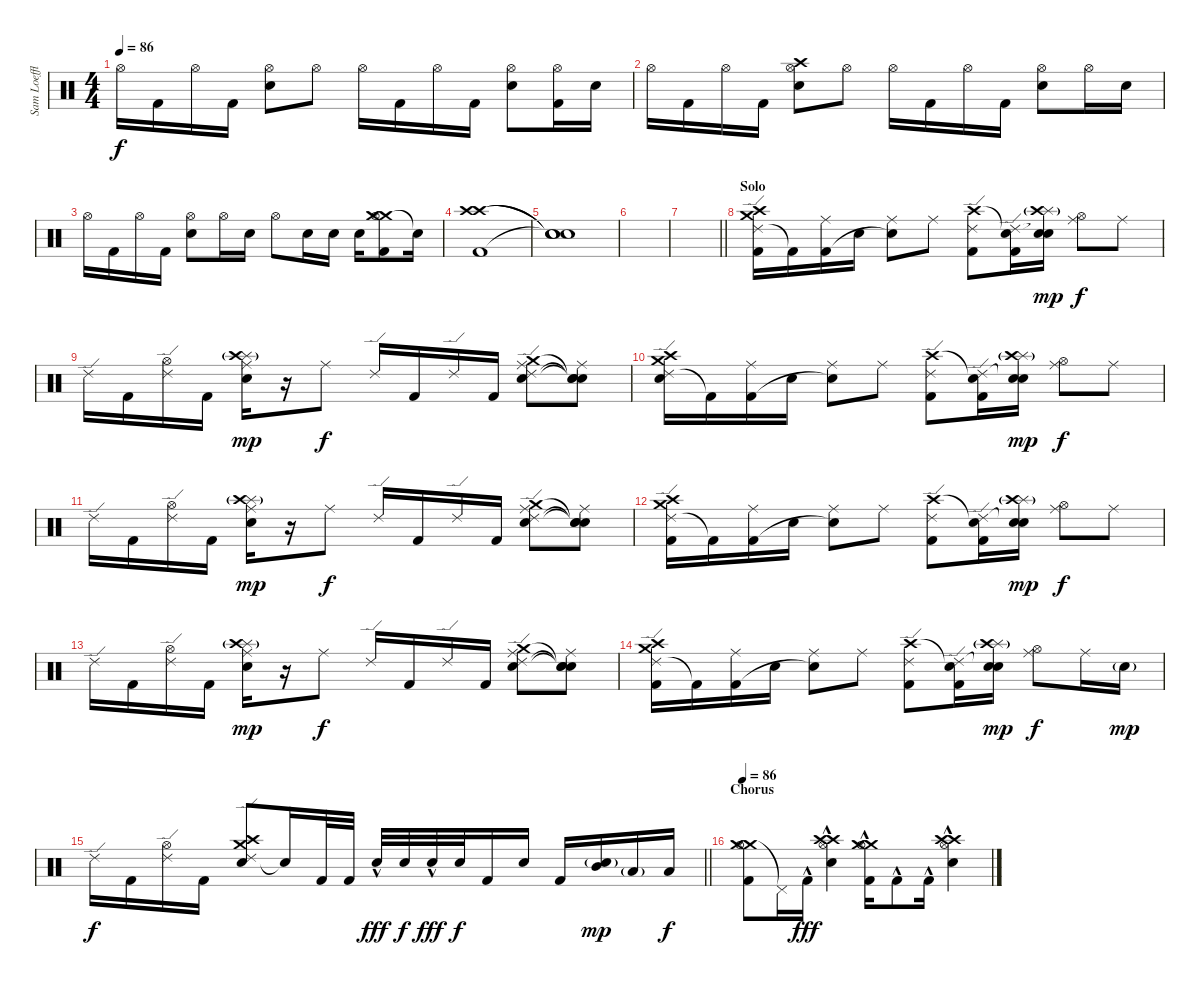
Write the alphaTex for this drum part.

\track ("Sam Loeffler- Drums" "Sam Loeffl") {instrument percussion}
\staff {score}
\articulation defaults
\ts (4 4)
\tempo 86
\clef neutral
\ks c "Hi-Hat (open)".16{dy f} "Kick (hit) 2".16 "Hi-Hat (open)".16 "Kick (hit) 2".16
("Hi-Hat (open)" "Electric Snare (hit)").8 "Hi-Hat (open)".8 "Hi-Hat (open)".16 "Kick (hit) 2".16 "Hi-Hat (open)".16 "Kick (hit) 2".16 ("Hi-Hat (open)" "Electric Snare (hit)").8 ("Hi-Hat (open)" "Kick (hit) 2").16 "Electric Snare (hit)".16 |
"Hi-Hat (open)".16 "Kick (hit) 2".16 "Hi-Hat (open)".16 "Kick (hit) 2".16 ("Crash high (hit)" "Hi-Hat (open)" "Electric Snare (hit)").8 "Hi-Hat (open)".8 "Hi-Hat (open)".16 "Kick (hit) 2".16 "Hi-Hat (open)".16 "Kick (hit) 2".16 ("Hi-Hat (open)" "Electric Snare (hit)").8 "Hi-Hat (open)".16 "Electric Snare (hit)".16 |
"Hi-Hat (open)".16 "Kick (hit) 2".16 "Hi-Hat (open)".16 "Kick (hit) 2".16 ("Hi-Hat (open)" "Electric Snare (hit)").8 "Hi-Hat (open)".16 "Electric Snare (hit)".16 "Hi-Hat (open)".8 "Electric Snare (hit)".16 "Electric Snare (hit)".16 "Electric Snare (hit)".16 ("Crash medium (hit)" "Crash medium (hit)" "Hi-Hat (open)" "Kick (hit) 2").8 "Snare (hit)"{t}.16 |
("Crash high (hit)" "Crash high (hit)" "Kick (hit) 2").1 |
("Snare (hit)"{t} "Snare (hit)"{t} "Snare (hit)"{t}).1 |
|
\barLineRight lightlight
|
\section ("" "Solo")
("Ride (edge) 2" "Crash medium (hit)" "Crash high (hit)" "Kick (hit) 2").16 "Kick (hit) 2"{t}.16 ("Ride (middle)" "Kick (hit) 2").16 "Electric Snare (hit)".16 ("Ride (middle)" "Snare (hit)"{t}).8 "Ride (middle)".8 ("Ride (edge) 2" "Crash high (hit)" "Kick (hit) 2").8 ("Ride (edge) 2" "Snare (hit)"{t} "Kick (hit) 2").16 ("Snare (hit)"{t} "Splash (hit)" "Crash high (hit)"{g} "Electric Snare (hit)").16{dy mp} ("Ride (middle)" "Hi-Hat (open)").8{dy f} "Ride (middle)".8 |
"Ride (edge) 2".16 "Kick (hit) 2".16 ("Ride (edge) 2" "Hi-Hat (open)").16 "Kick (hit) 2".16 ("Splash (hit)" "Crash high (hit)"{g} "Ride (middle)" "Electric Snare (hit)").16{dy mp} r.16 "Ride (middle)".8{dy f} "Ride (edge) 2".16 "Kick (hit) 2".16 "Ride (edge) 2".16 "Kick (hit) 2".16 ("Ride (edge) 2" "Crash medium (hit)" "Ride (middle)" "Electric Snare (hit)").8 ("Snare (hit)"{t} "Snare (hit)"{t} "Ride (middle)" "Snare (hit)"{t}).8 |
("Ride (edge) 2" "Crash medium (hit)" "Crash high (hit)" "Hand Clap (hit)").16 "Kick (hit) 2"{t}.16 ("Ride (middle)" "Kick (hit) 2").16 "Electric Snare (hit)".16 ("Ride (middle)" "Snare (hit)"{t}).8 "Ride (middle)".8 ("Ride (edge) 2" "Crash high (hit)" "Kick (hit) 2").8 ("Ride (edge) 2" "Snare (hit)"{t} "Kick (hit) 2").16 ("Snare (hit)"{t} "Splash (hit)" "Crash high (hit)"{g} "Electric Snare (hit)").16{dy mp} ("Ride (middle)" "Hi-Hat (open)").8{dy f} "Ride (middle)".8 |
"Ride (edge) 2".16 "Kick (hit) 2".16 ("Ride (edge) 2" "Hi-Hat (open)").16 "Kick (hit) 2".16 ("Splash (hit)" "Crash high (hit)"{g} "Ride (middle)" "Electric Snare (hit)").16{dy mp} r.16 "Ride (middle)".8{dy f} "Ride (edge) 2".16 "Kick (hit) 2".16 "Ride (edge) 2".16 "Kick (hit) 2".16 ("Ride (edge) 2" "Crash medium (hit)" "Ride (middle)" "Electric Snare (hit)").8 ("Snare (hit)"{t} "Snare (hit)"{t} "Ride (middle)" "Snare (hit)"{t}).8 |
("Ride (edge) 2" "Crash medium (hit)" "Crash high (hit)" "Kick (hit) 2").16 "Kick (hit) 2"{t}.16 ("Ride (middle)" "Kick (hit) 2").16 "Electric Snare (hit)".16 ("Ride (middle)" "Snare (hit)"{t}).8 "Ride (middle)".8 ("Ride (edge) 2" "Crash high (hit)" "Kick (hit) 2").8 ("Ride (edge) 2" "Snare (hit)"{t} "Kick (hit) 2").16 ("Snare (hit)"{t} "Splash (hit)" "Crash high (hit)"{g} "Electric Snare (hit)").16{dy mp} ("Ride (middle)" "Hi-Hat (open)").8{dy f} "Ride (middle)".8 |
"Ride (edge) 2".16 "Kick (hit) 2".16 ("Ride (edge) 2" "Hi-Hat (open)").16 "Kick (hit) 2".16 ("Splash (hit)" "Crash high (hit)"{g} "Ride (middle)" "Electric Snare (hit)").16{dy mp} r.16 "Ride (middle)".8{dy f} "Ride (edge) 2".16 "Kick (hit) 2".16 "Ride (edge) 2".16 "Kick (hit) 2".16 ("Ride (edge) 2" "Crash medium (hit)" "Ride (middle)" "Electric Snare (hit)").8 ("Snare (hit)"{t} "Snare (hit)"{t} "Ride (middle)" "Snare (hit)"{t}).8 |
("Ride (edge) 2" "Crash medium (hit)" "Crash high (hit)" "Kick (hit) 2").16 "Kick (hit) 2"{t}.16 ("Ride (middle)" "Kick (hit) 2").16 "Electric Snare (hit)".16 ("Ride (middle)" "Snare (hit)"{t}).8 "Ride (middle)".8 ("Ride (edge) 2" "Crash high (hit)" "Kick (hit) 2").8 ("Ride (edge) 2" "Snare (hit)"{t} "Kick (hit) 2").16 ("Snare (hit)"{t} "Splash (hit)" "Crash high (hit)"{g} "Electric Snare (hit)").16{dy mp} ("Ride (middle)" "Hi-Hat (open)").8{dy f} "Ride (middle)".16 "Electric Snare (hit)"{g}.16{dy mp} |
\barLineRight lightlight "Ride (edge) 2".16{dy f} "Kick (hit) 2".16
("Ride (edge) 2" "Hi-Hat (open)").16 "Kick (hit) 2".16 ("Ride (edge) 2" "Crash medium (hit)" "Crash high (hit)" "Electric Snare (hit)").8 "Snare (hit)"{t}.16 "Kick (hit) 2".32 "Kick (hit) 2".32 "Electric Snare (hit)"{hac}.32{dy fff} "Electric Snare (hit)".32{dy f} "Electric Snare (hit)"{hac}.32{dy fff} "Electric Snare (hit)".32{dy f} "Kick (hit) 2".16 "Electric Snare (hit)".16 "Kick (hit) 2".16 ("Mid Tom (hit)" "Electric Snare (hit)"{g}).16{dy mp} "Low Tom (hit)"{g}.16 "Low Floor Tom (hit)".16{dy f} |
\section ("" "Chorus")
\tempo 86
("Crash medium (hit)" "Crash medium (hit)" "Hi-Hat (open)" "Kick (hit) 2").8 "Pedal Hi-Hat (hit)"{t}.16 "Kick (hit) 2"{hac}.16{dy fff} ("Crash high (hit)" "Crash high (hit)" "Hi-Hat (open)" "Electric Snare (hit)"{hac}).4 ("Crash medium (hit)" "Crash medium (hit)" "Hi-Hat (open)" "Kick (hit) 2"{hac}).16 "Kick (hit) 2"{hac}.8 "Kick (hit) 2"{hac}.16 ("Crash high (hit)" "Crash high (hit)" "Hi-Hat (open)" "Electric Snare (hit)"{hac}).4
